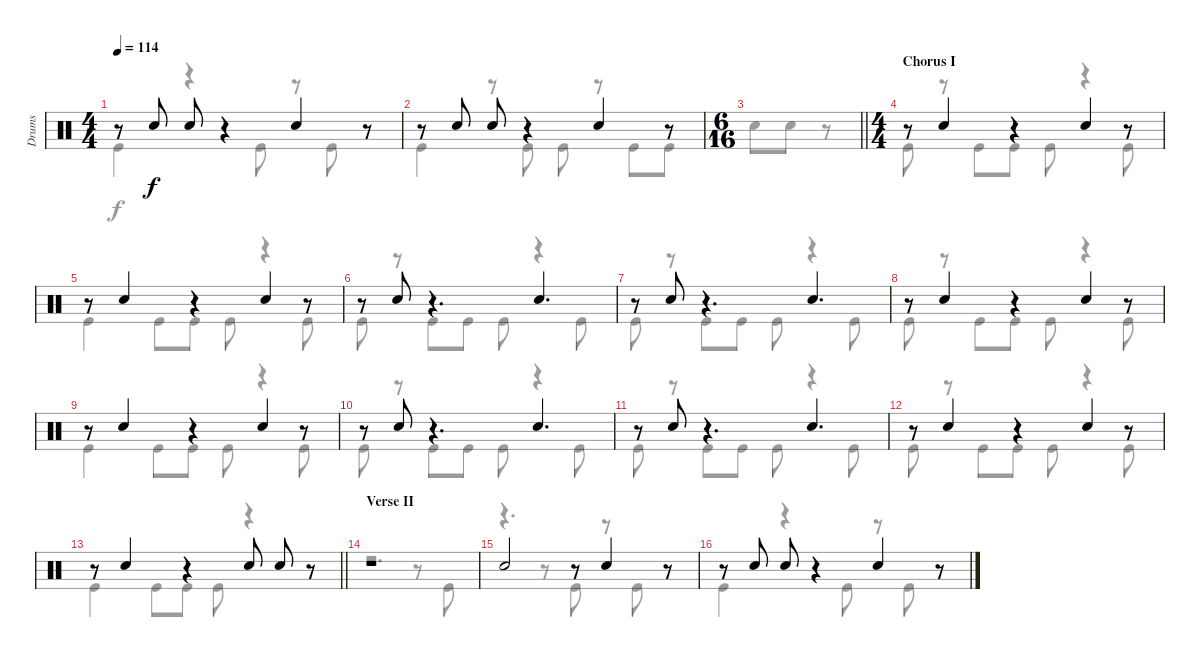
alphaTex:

\track ("Drums" "Drums") {instrument percussion}
\staff {score}
\articulation defaults
\voice
\ts (4 4)
\tempo 114
\clef neutral
\ks c
r.8{dy f} "Snare (hit) 2".8 "Snare (hit) 2".8 r.4 "Snare (hit) 2".4 r.8 |
r.8 "Snare (hit) 2".8 "Snare (hit) 2".8 r.4 "Snare (hit) 2".4 r.8 |
\ts (6 16)
\barLineRight lightlight
|
\ts (4 4)
\section ("" "Chorus I")
r.8 "Snare (hit) 2".4 r.4 "Snare (hit) 2".4 r.8 |
r.8 "Snare (hit) 2".4 r.4 "Snare (hit) 2".4 r.8 |
r.8 "Snare (hit) 2".8 r.4{d} "Snare (hit) 2".4{d} |
r.8 "Snare (hit) 2".8 r.4{d} "Snare (hit) 2".4{d} |
r.8 "Snare (hit) 2".4 r.4 "Snare (hit) 2".4 r.8 |
r.8 "Snare (hit) 2".4 r.4 "Snare (hit) 2".4 r.8 |
r.8 "Snare (hit) 2".8 r.4{d} "Snare (hit) 2".4{d} |
r.8 "Snare (hit) 2".8 r.4{d} "Snare (hit) 2".4{d} |
r.8 "Snare (hit) 2".4 r.4 "Snare (hit) 2".4 r.8 |
\barLineRight lightlight
r.8 "Snare (hit) 2".4 r.4 "Snare (hit) 2".8 "Snare (hit) 2".8 r.8 |
\section ("" "Verse II")
r.1 |
"Snare (hit) 2".2 r.8 "Snare (hit) 2".4 r.8 |
r.8 "Snare (hit) 2".8 "Snare (hit) 2".8 r.4 "Snare (hit) 2".4 r.8
\voice
\clef neutral
\ottava regular
\simile none
\ks c "Kick (hit)".4{dy f}
r.4 "Kick (hit)".8 r.8 "Kick (hit)".8 r.8 |
"Kick (hit)".4 r.8 "Kick (hit)".8 "Kick (hit)".8 r.8 "Kick (hit)".8 "Kick (hit)".8 |
\barLineRight lightlight "Snare (hit) 2".8 "Snare (hit) 2".8
r.8 |
"Kick (hit)".8 r.8 "Kick (hit)".8 "Kick (hit)".8 "Kick (hit)".8 r.4 "Kick (hit)".8 |
"Kick (hit)".4 "Kick (hit)".8 "Kick (hit)".8 "Kick (hit)".8 r.4 "Kick (hit)".8 |
"Kick (hit)".8 r.8 "Kick (hit)".8 "Kick (hit)".8 "Kick (hit)".8 r.4 "Kick (hit)".8 |
"Kick (hit)".8 r.8 "Kick (hit)".8 "Kick (hit)".8 "Kick (hit)".8 r.4 "Kick (hit)".8 |
"Kick (hit)".8 r.8 "Kick (hit)".8 "Kick (hit)".8 "Kick (hit)".8 r.4 "Kick (hit)".8 |
"Kick (hit)".4 "Kick (hit)".8 "Kick (hit)".8 "Kick (hit)".8 r.4 "Kick (hit)".8 |
"Kick (hit)".8 r.8 "Kick (hit)".8 "Kick (hit)".8 "Kick (hit)".8 r.4 "Kick (hit)".8 |
"Kick (hit)".8 r.8 "Kick (hit)".8 "Kick (hit)".8 "Kick (hit)".8 r.4 "Kick (hit)".8 |
"Kick (hit)".8 r.8 "Kick (hit)".8 "Kick (hit)".8 "Kick (hit)".8 r.4 "Kick (hit)".8 |
\barLineRight lightlight "Kick (hit)".4 "Kick (hit)".8 "Kick (hit)".8 "Kick (hit)".8
r.4 r.8 |
r.2{d} r.8 "Kick (hit)".8 |
r.4{d} r.8 "Kick (hit)".8 r.8 "Kick (hit)".8 r.8 |
"Kick (hit)".4 r.4 "Kick (hit)".8 r.8 "Kick (hit)".8 r.8
